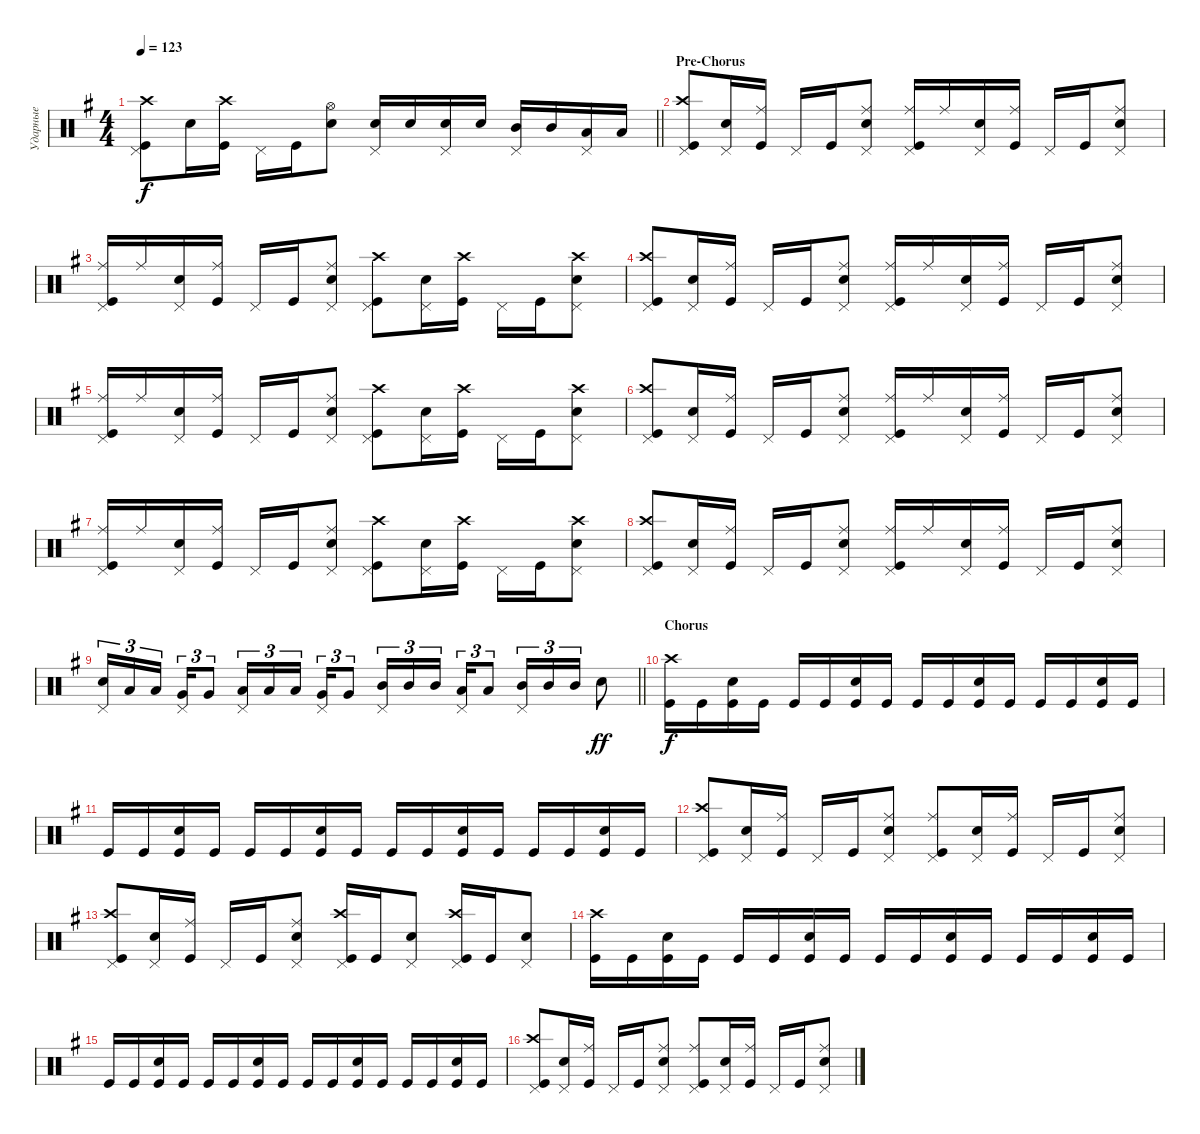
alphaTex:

\track ("Ударные" "Ударные") {instrument percussion}
\staff {score}
\articulation defaults
\ts (4 4)
\tempo 123
\clef neutral
\barLineRight lightlight
\ks eminor
("Kick (hit)" "Crash high (hit)" "Pedal Hi-Hat (hit)").8{dy f} "Snare (hit) 2".16 ("Kick (hit)" "Crash high (hit)").16 "Pedal Hi-Hat (hit)".16 "Kick (hit)".16 ("Snare (hit) 2" "Hi-Hat (open)").8 ("Snare (hit) 2" "Pedal Hi-Hat (hit)").16 "Snare (hit) 2".16 ("Snare (hit) 2" "Pedal Hi-Hat (hit)").16 "Snare (hit) 2".16 ("Mid Tom (hit)" "Pedal Hi-Hat (hit)").16 "Mid Tom (hit)".16 ("Low Tom (hit)" "Pedal Hi-Hat (hit)").16 "Low Tom (hit)".16 |
\section ("" "Pre-Chorus")
("Kick (hit)" "Crash high (hit)" "Pedal Hi-Hat (hit)").8 ("Snare (hit) 2" "Pedal Hi-Hat (hit)").16 ("Kick (hit)" "Ride (middle)").16 "Pedal Hi-Hat (hit)".16 "Kick (hit)".16 ("Snare (hit) 2" "Ride (middle)" "Pedal Hi-Hat (hit)").8 ("Kick (hit)" "Ride (middle)" "Pedal Hi-Hat (hit)").16 "Ride (middle)".16 ("Snare (hit) 2" "Pedal Hi-Hat (hit)").16 ("Ride (middle)" "Kick (hit)").16 "Pedal Hi-Hat (hit)".16 "Kick (hit)".16 ("Snare (hit) 2" "Ride (middle)" "Pedal Hi-Hat (hit)").8 |
("Kick (hit)" "Ride (middle)" "Pedal Hi-Hat (hit)").16 "Ride (middle)".16 ("Snare (hit) 2" "Pedal Hi-Hat (hit)").16 ("Kick (hit)" "Ride (middle)").16 "Pedal Hi-Hat (hit)".16 "Kick (hit)".16 ("Snare (hit) 2" "Ride (middle)" "Pedal Hi-Hat (hit)").8 ("Kick (hit)" "Crash high (hit)" "Pedal Hi-Hat (hit)").8 ("Snare (hit) 2" "Pedal Hi-Hat (hit)").16 ("Crash high (hit)" "Kick (hit)").16 "Pedal Hi-Hat (hit)".16 "Kick (hit)".16 ("Snare (hit) 2" "Crash high (hit)" "Pedal Hi-Hat (hit)").8 |
("Kick (hit)" "Crash high (hit)" "Pedal Hi-Hat (hit)").8 ("Snare (hit) 2" "Pedal Hi-Hat (hit)").16 ("Kick (hit)" "Ride (middle)").16 "Pedal Hi-Hat (hit)".16 "Kick (hit)".16 ("Snare (hit) 2" "Ride (middle)" "Pedal Hi-Hat (hit)").8 ("Kick (hit)" "Ride (middle)" "Pedal Hi-Hat (hit)").16 "Ride (middle)".16 ("Snare (hit) 2" "Pedal Hi-Hat (hit)").16 ("Ride (middle)" "Kick (hit)").16 "Pedal Hi-Hat (hit)".16 "Kick (hit)".16 ("Snare (hit) 2" "Ride (middle)" "Pedal Hi-Hat (hit)").8 |
("Kick (hit)" "Ride (middle)" "Pedal Hi-Hat (hit)").16 "Ride (middle)".16 ("Snare (hit) 2" "Pedal Hi-Hat (hit)").16 ("Kick (hit)" "Ride (middle)").16 "Pedal Hi-Hat (hit)".16 "Kick (hit)".16 ("Snare (hit) 2" "Ride (middle)" "Pedal Hi-Hat (hit)").8 ("Kick (hit)" "Crash high (hit)" "Pedal Hi-Hat (hit)").8 ("Snare (hit) 2" "Pedal Hi-Hat (hit)").16 ("Crash high (hit)" "Kick (hit)").16 "Pedal Hi-Hat (hit)".16 "Kick (hit)".16 ("Snare (hit) 2" "Crash high (hit)" "Pedal Hi-Hat (hit)").8 |
("Kick (hit)" "Crash high (hit)" "Pedal Hi-Hat (hit)").8 ("Snare (hit) 2" "Pedal Hi-Hat (hit)").16 ("Kick (hit)" "Ride (middle)").16 "Pedal Hi-Hat (hit)".16 "Kick (hit)".16 ("Snare (hit) 2" "Ride (middle)" "Pedal Hi-Hat (hit)").8 ("Kick (hit)" "Ride (middle)" "Pedal Hi-Hat (hit)").16 "Ride (middle)".16 ("Snare (hit) 2" "Pedal Hi-Hat (hit)").16 ("Ride (middle)" "Kick (hit)").16 "Pedal Hi-Hat (hit)".16 "Kick (hit)".16 ("Snare (hit) 2" "Ride (middle)" "Pedal Hi-Hat (hit)").8 |
("Kick (hit)" "Ride (middle)" "Pedal Hi-Hat (hit)").16 "Ride (middle)".16 ("Snare (hit) 2" "Pedal Hi-Hat (hit)").16 ("Kick (hit)" "Ride (middle)").16 "Pedal Hi-Hat (hit)".16 "Kick (hit)".16 ("Snare (hit) 2" "Ride (middle)" "Pedal Hi-Hat (hit)").8 ("Kick (hit)" "Crash high (hit)" "Pedal Hi-Hat (hit)").8 ("Snare (hit) 2" "Pedal Hi-Hat (hit)").16 ("Crash high (hit)" "Kick (hit)").16 "Pedal Hi-Hat (hit)".16 "Kick (hit)".16 ("Snare (hit) 2" "Crash high (hit)" "Pedal Hi-Hat (hit)").8 |
("Kick (hit)" "Crash high (hit)" "Pedal Hi-Hat (hit)").8 ("Snare (hit) 2" "Pedal Hi-Hat (hit)").16 ("Kick (hit)" "Ride (middle)").16 "Pedal Hi-Hat (hit)".16 "Kick (hit)".16 ("Snare (hit) 2" "Ride (middle)" "Pedal Hi-Hat (hit)").8 ("Kick (hit)" "Ride (middle)" "Pedal Hi-Hat (hit)").16 "Ride (middle)".16 ("Snare (hit) 2" "Pedal Hi-Hat (hit)").16 ("Ride (middle)" "Kick (hit)").16 "Pedal Hi-Hat (hit)".16 "Kick (hit)".16 ("Snare (hit) 2" "Ride (middle)" "Pedal Hi-Hat (hit)").8 |
\barLineRight lightlight
("Snare (hit) 2" "Pedal Hi-Hat (hit)").16{tu (3 2)} "Low Tom (hit)".16{tu (3 2)} "Low Tom (hit)".16{tu (3 2) beam splitsecondary} ("Very Low Tom (hit)" "Pedal Hi-Hat (hit)").16{tu (3 2)} "Very Low Tom (hit)".8{tu (3 2)} ("Low Tom (hit)" "Pedal Hi-Hat (hit)").16{tu (3 2)} "Low Tom (hit)".16{tu (3 2)} "Low Tom (hit)".16{tu (3 2) beam splitsecondary} ("Pedal Hi-Hat (hit)" "Very Low Tom (hit)").16{tu (3 2)} "Very Low Tom (hit)".8{tu (3 2)} ("Mid Tom (hit)" "Pedal Hi-Hat (hit)").16{tu (3 2)} "Mid Tom (hit)".16{tu (3 2)} "Mid Tom (hit)".16{tu (3 2) beam splitsecondary} ("Low Tom (hit)" "Pedal Hi-Hat (hit)").16{tu (3 2)} "Low Tom (hit)".8{tu (3 2)} ("Mid Tom (hit)" "Pedal Hi-Hat (hit)").16{tu (3 2)} "Mid Tom (hit)".16{tu (3 2)} "Mid Tom (hit)".16{tu (3 2)} "Snare (hit) 2".8{dy ff} |
\section ("" "Chorus")
("Kick (hit)" "Crash high (hit)").16{dy f} "Kick (hit)".16 ("Kick (hit)" "Snare (hit) 2").16 "Kick (hit)".16 "Kick (hit)".16 "Kick (hit)".16 ("Kick (hit)" "Snare (hit) 2").16 "Kick (hit)".16 "Kick (hit)".16 "Kick (hit)".16 ("Kick (hit)" "Snare (hit) 2").16 "Kick (hit)".16 "Kick (hit)".16 "Kick (hit)".16 ("Kick (hit)" "Snare (hit) 2").16 "Kick (hit)".16 |
"Kick (hit)".16 "Kick (hit)".16 ("Kick (hit)" "Snare (hit) 2").16 "Kick (hit)".16 "Kick (hit)".16 "Kick (hit)".16 ("Kick (hit)" "Snare (hit) 2").16 "Kick (hit)".16 "Kick (hit)".16 "Kick (hit)".16 ("Kick (hit)" "Snare (hit) 2").16 "Kick (hit)".16 "Kick (hit)".16 "Kick (hit)".16 ("Kick (hit)" "Snare (hit) 2").16 "Kick (hit)".16 |
("Kick (hit)" "Crash high (hit)" "Pedal Hi-Hat (hit)").8 ("Snare (hit) 2" "Pedal Hi-Hat (hit)").16 ("Kick (hit)" "Ride (middle)").16 "Pedal Hi-Hat (hit)".16 "Kick (hit)".16 ("Snare (hit) 2" "Ride (middle)" "Pedal Hi-Hat (hit)").8 ("Kick (hit)" "Ride (middle)" "Pedal Hi-Hat (hit)").8 ("Snare (hit) 2" "Pedal Hi-Hat (hit)").16 ("Kick (hit)" "Ride (middle)").16 "Pedal Hi-Hat (hit)".16 "Kick (hit)".16 ("Snare (hit) 2" "Ride (middle)" "Pedal Hi-Hat (hit)").8 |
("Kick (hit)" "Crash high (hit)" "Pedal Hi-Hat (hit)").8 ("Snare (hit) 2" "Pedal Hi-Hat (hit)").16 ("Kick (hit)" "Ride (middle)").16 "Pedal Hi-Hat (hit)".16 "Kick (hit)".16 ("Snare (hit) 2" "Ride (middle)" "Pedal Hi-Hat (hit)").8 ("Kick (hit)" "Crash high (hit)" "Pedal Hi-Hat (hit)").16 "Kick (hit)".16 ("Snare (hit) 2" "Pedal Hi-Hat (hit)").8 ("Kick (hit)" "Crash high (hit)" "Pedal Hi-Hat (hit)").16 "Kick (hit)".16 ("Snare (hit) 2" "Pedal Hi-Hat (hit)").8 |
("Kick (hit)" "Crash high (hit)").16 "Kick (hit)".16 ("Kick (hit)" "Snare (hit) 2").16 "Kick (hit)".16 "Kick (hit)".16 "Kick (hit)".16 ("Kick (hit)" "Snare (hit) 2").16 "Kick (hit)".16 "Kick (hit)".16 "Kick (hit)".16 ("Kick (hit)" "Snare (hit) 2").16 "Kick (hit)".16 "Kick (hit)".16 "Kick (hit)".16 ("Kick (hit)" "Snare (hit) 2").16 "Kick (hit)".16 |
"Kick (hit)".16 "Kick (hit)".16 ("Kick (hit)" "Snare (hit) 2").16 "Kick (hit)".16 "Kick (hit)".16 "Kick (hit)".16 ("Kick (hit)" "Snare (hit) 2").16 "Kick (hit)".16 "Kick (hit)".16 "Kick (hit)".16 ("Kick (hit)" "Snare (hit) 2").16 "Kick (hit)".16 "Kick (hit)".16 "Kick (hit)".16 ("Kick (hit)" "Snare (hit) 2").16 "Kick (hit)".16 |
("Kick (hit)" "Crash high (hit)" "Pedal Hi-Hat (hit)").8 ("Snare (hit) 2" "Pedal Hi-Hat (hit)").16 ("Kick (hit)" "Ride (middle)").16 "Pedal Hi-Hat (hit)".16 "Kick (hit)".16 ("Snare (hit) 2" "Ride (middle)" "Pedal Hi-Hat (hit)").8 ("Kick (hit)" "Ride (middle)" "Pedal Hi-Hat (hit)").8 ("Snare (hit) 2" "Pedal Hi-Hat (hit)").16 ("Kick (hit)" "Ride (middle)").16 "Pedal Hi-Hat (hit)".16 "Kick (hit)".16 ("Snare (hit) 2" "Ride (middle)" "Pedal Hi-Hat (hit)").8
